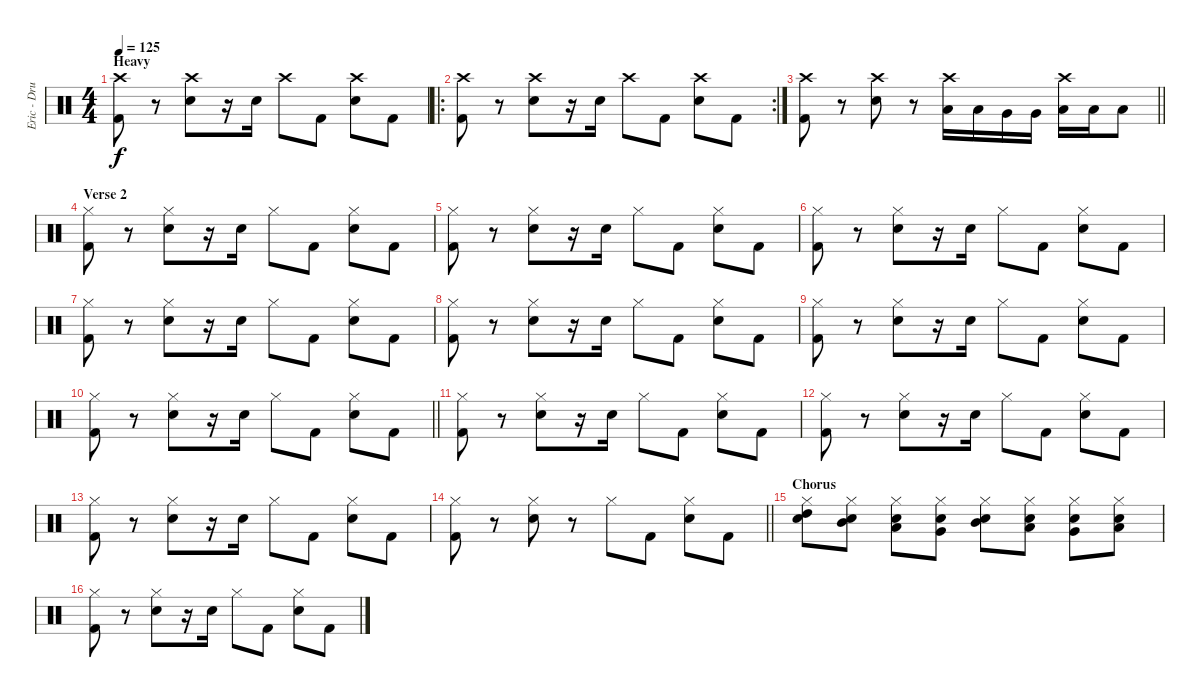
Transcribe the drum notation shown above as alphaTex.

\track ("Eric - Drums" "Eric - Dru") {instrument percussion}
\staff {score}
\articulation defaults
\ts (4 4)
\section ("" "Heavy")
\tempo 125
\clef neutral
\ks c
("Crash high (hit)" "Kick (hit) 2").8{dy f} r.8 ("Crash high (hit)" "Snare (hit) 2").8 r.16 "Snare (hit) 2".16 "Crash high (hit)".8 "Kick (hit) 2".8 ("Crash high (hit)" "Snare (hit) 2").8 "Kick (hit) 2".8 |
\ro
\rc 2
("Crash high (hit)" "Kick (hit) 2").8 r.8 ("Crash high (hit)" "Snare (hit) 2").8 r.16 "Snare (hit) 2".16 "Crash high (hit)".8 "Kick (hit) 2".8 ("Crash high (hit)" "Snare (hit) 2").8 "Kick (hit) 2".8 |
\barLineRight lightlight
("Crash high (hit)" "Kick (hit) 2").8 r.8 ("Crash high (hit)" "Snare (hit) 2").8 r.8 ("Crash high (hit)" "Low Tom (hit)").16 "Low Tom (hit)".16 "Very Low Tom (hit)".16 "Very Low Tom (hit)".16 ("Crash high (hit)" "Low Floor Tom (hit)").16 "Low Floor Tom (hit)".16 "Low Tom (hit)".8 |
\section ("" "Verse 2")
("Hi-Hat (closed)" "Kick (hit) 2").8 r.8 ("Hi-Hat (closed)" "Snare (hit) 2").8 r.16 "Snare (hit) 2".16 "Hi-Hat (closed)".8 "Kick (hit) 2".8 ("Hi-Hat (closed)" "Snare (hit) 2").8 "Kick (hit) 2".8 |
("Hi-Hat (closed)" "Kick (hit) 2").8 r.8 ("Hi-Hat (closed)" "Snare (hit) 2").8 r.16 "Snare (hit) 2".16 "Hi-Hat (closed)".8 "Kick (hit) 2".8 ("Hi-Hat (closed)" "Snare (hit) 2").8 "Kick (hit) 2".8 |
("Hi-Hat (closed)" "Kick (hit) 2").8 r.8 ("Hi-Hat (closed)" "Snare (hit) 2").8 r.16 "Snare (hit) 2".16 "Hi-Hat (closed)".8 "Kick (hit) 2".8 ("Hi-Hat (closed)" "Snare (hit) 2").8 "Kick (hit) 2".8 |
("Hi-Hat (closed)" "Kick (hit) 2").8 r.8 ("Hi-Hat (closed)" "Snare (hit) 2").8 r.16 "Snare (hit) 2".16 "Hi-Hat (closed)".8 "Kick (hit) 2".8 ("Hi-Hat (closed)" "Snare (hit) 2").8 "Kick (hit) 2".8 |
("Hi-Hat (closed)" "Kick (hit) 2").8 r.8 ("Hi-Hat (closed)" "Snare (hit) 2").8 r.16 "Snare (hit) 2".16 "Hi-Hat (closed)".8 "Kick (hit) 2".8 ("Hi-Hat (closed)" "Snare (hit) 2").8 "Kick (hit) 2".8 |
("Hi-Hat (closed)" "Kick (hit) 2").8 r.8 ("Hi-Hat (closed)" "Snare (hit) 2").8 r.16 "Snare (hit) 2".16 "Hi-Hat (closed)".8 "Kick (hit) 2".8 ("Hi-Hat (closed)" "Snare (hit) 2").8 "Kick (hit) 2".8 |
\barLineRight lightlight
("Hi-Hat (closed)" "Kick (hit) 2").8 r.8 ("Hi-Hat (closed)" "Snare (hit) 2").8 r.16 "Snare (hit) 2".16 "Hi-Hat (closed)".8 "Kick (hit) 2".8 ("Hi-Hat (closed)" "Snare (hit) 2").8 "Kick (hit) 2".8 |
\section ("" "")
("Hi-Hat (closed)" "Kick (hit) 2").8 r.8 ("Hi-Hat (closed)" "Snare (hit) 2").8 r.16 "Snare (hit) 2".16 "Hi-Hat (closed)".8 "Kick (hit) 2".8 ("Hi-Hat (closed)" "Snare (hit) 2").8 "Kick (hit) 2".8 |
("Hi-Hat (closed)" "Kick (hit) 2").8 r.8 ("Hi-Hat (closed)" "Snare (hit) 2").8 r.16 "Snare (hit) 2".16 "Hi-Hat (closed)".8 "Kick (hit) 2".8 ("Hi-Hat (closed)" "Snare (hit) 2").8 "Kick (hit) 2".8 |
("Hi-Hat (closed)" "Kick (hit) 2").8 r.8 ("Hi-Hat (closed)" "Snare (hit) 2").8 r.16 "Snare (hit) 2".16 "Hi-Hat (closed)".8 "Kick (hit) 2".8 ("Hi-Hat (closed)" "Snare (hit) 2").8 "Kick (hit) 2".8 |
\barLineRight lightlight
("Hi-Hat (closed)" "Kick (hit) 2").8 r.8 ("Hi-Hat (closed)" "Snare (hit) 2").8 r.8 "Hi-Hat (closed)".8 "Kick (hit) 2".8 ("Hi-Hat (closed)" "Snare (hit) 2").8 "Kick (hit) 2".8 |
\section ("" "Chorus")
("Hi-Hat (closed)" "High Tom (hit)" "Snare (hit) 2").8 ("Hi-Hat (closed)" "Mid Tom (hit)" "Snare (hit) 2").8 ("Hi-Hat (closed)" "Low Tom (hit)" "Snare (hit) 2").8 ("Hi-Hat (closed)" "Very Low Tom (hit)" "Snare (hit) 2").8 ("Hi-Hat (closed)" "Mid Tom (hit)" "Snare (hit) 2").8 ("Hi-Hat (closed)" "Low Tom (hit)" "Snare (hit) 2").8 ("Hi-Hat (closed)" "Very Low Tom (hit)" "Snare (hit) 2").8 ("Hi-Hat (closed)" "Low Floor Tom (hit)" "Snare (hit) 2").8 |
("Hi-Hat (closed)" "Kick (hit) 2").8 r.8 ("Hi-Hat (closed)" "Snare (hit) 2").8 r.16 "Snare (hit) 2".16 "Hi-Hat (closed)".8 "Kick (hit) 2".8 ("Hi-Hat (closed)" "Snare (hit) 2").8 "Kick (hit) 2".8
